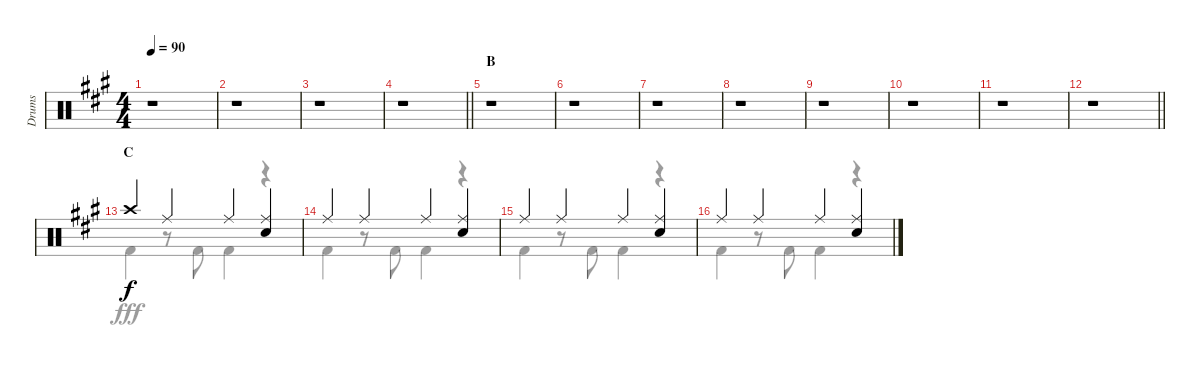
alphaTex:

\track ("Drums" "Drums") {instrument percussion}
\staff {score}
\articulation defaults
\voice
\ts (4 4)
\tempo 90
\clef neutral
\ks a
r.1{dy f} |
r.1 |
r.1 |
\barLineRight lightlight
r.1 |
\section ("" "B")
r.1 |
r.1 |
r.1 |
r.1 |
r.1 |
r.1 |
r.1 |
\barLineRight lightlight
r.1 |
\section ("" "C")
"Crash high (hit)".4 "Ride (middle)".4 "Ride (middle)".4 ("Ride (middle)" "Snare (hit) 2").4 |
"Ride (middle)".4 "Ride (middle)".4 "Ride (middle)".4 ("Ride (middle)" "Snare (hit) 2").4 |
"Ride (middle)".4 "Ride (middle)".4 "Ride (middle)".4 ("Ride (middle)" "Snare (hit) 2").4 |
"Ride (middle)".4 "Ride (middle)".4 "Ride (middle)".4 ("Ride (middle)" "Snare (hit) 2").4
\voice
\clef neutral
\ottava regular
\simile none
\ks a
r.1{dy fff} |
r.1 |
r.1 |
\barLineRight lightlight
r.1 |
r.1 |
r.1 |
r.1 |
r.1 |
r.1 |
r.1 |
r.1 |
\barLineRight lightlight
r.1 |
"Kick (hit) 2".4 r.8 "Kick (hit) 2".8 "Kick (hit) 2".4 r.4 |
"Kick (hit) 2".4 r.8 "Kick (hit) 2".8 "Kick (hit) 2".4 r.4 |
"Kick (hit) 2".4 r.8 "Kick (hit) 2".8 "Kick (hit) 2".4 r.4 |
"Kick (hit) 2".4 r.8 "Kick (hit) 2".8 "Kick (hit) 2".4 r.4
